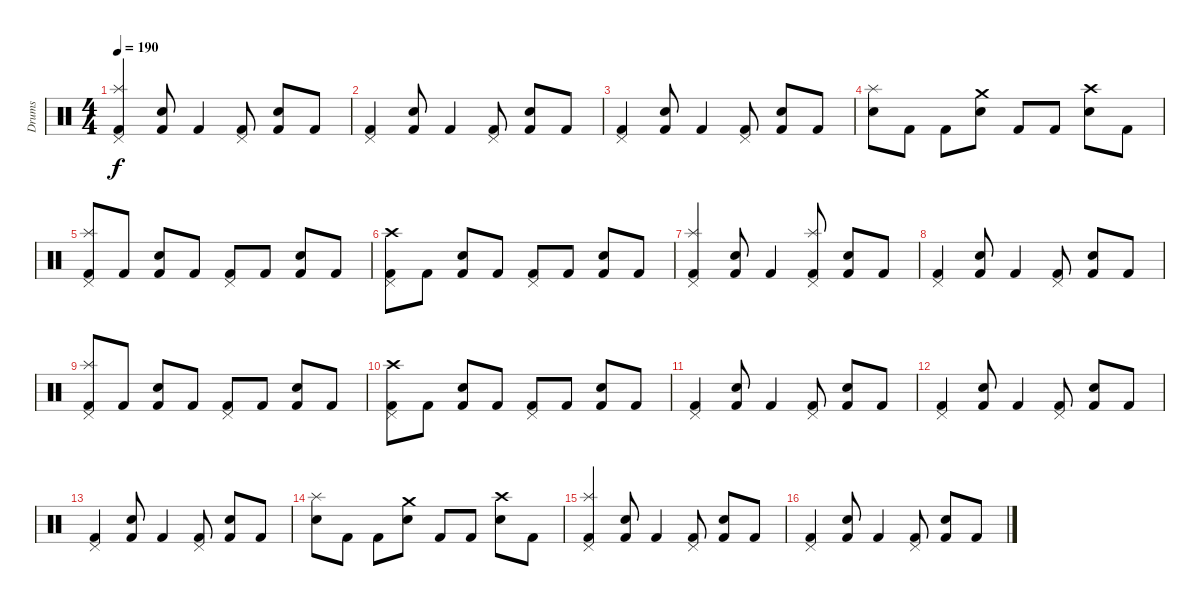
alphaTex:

\track ("Drums" "Drums") {instrument percussion}
\staff {score}
\articulation defaults
\ts (4 4)
\tempo 190
\clef neutral
\ks c
("Pedal Hi-Hat (hit)" "Splash (hit)" "Kick (hit) 2").4{dy f} ("Electric Snare (hit)" "Kick (hit) 2").8 "Kick (hit) 2".4 ("Pedal Hi-Hat (hit)" "Kick (hit) 2").8 ("Electric Snare (hit)" "Kick (hit) 2").8 "Kick (hit) 2".8 |
("Pedal Hi-Hat (hit)" "Kick (hit) 2").4 ("Electric Snare (hit)" "Kick (hit) 2").8 "Kick (hit) 2".4 ("Pedal Hi-Hat (hit)" "Kick (hit) 2").8 ("Electric Snare (hit)" "Kick (hit) 2").8 "Kick (hit) 2".8 |
("Pedal Hi-Hat (hit)" "Kick (hit) 2").4 ("Electric Snare (hit)" "Kick (hit) 2").8 "Kick (hit) 2".4 ("Pedal Hi-Hat (hit)" "Kick (hit) 2").8 ("Electric Snare (hit)" "Kick (hit) 2").8 "Kick (hit) 2".8 |
("Splash (hit)" "Electric Snare (hit)").8 "Kick (hit) 2".8 "Kick (hit) 2".8 ("Crash medium (hit)" "Electric Snare (hit)").8 "Kick (hit) 2".8 "Kick (hit) 2".8 ("Crash high (hit)" "Electric Snare (hit)").8 "Kick (hit) 2".8 |
("Splash (hit)" "Pedal Hi-Hat (hit)" "Kick (hit) 2").8 "Kick (hit) 2".8 ("Electric Snare (hit)" "Kick (hit) 2").8 "Kick (hit) 2".8 ("Pedal Hi-Hat (hit)" "Kick (hit) 2").8 "Kick (hit) 2".8 ("Electric Snare (hit)" "Kick (hit) 2").8 "Kick (hit) 2".8 |
("Crash high (hit)" "Pedal Hi-Hat (hit)" "Kick (hit) 2").8 "Kick (hit) 2".8 ("Electric Snare (hit)" "Kick (hit) 2").8 "Kick (hit) 2".8 ("Pedal Hi-Hat (hit)" "Kick (hit) 2").8 "Kick (hit) 2".8 ("Electric Snare (hit)" "Kick (hit) 2").8 "Kick (hit) 2".8 |
("Pedal Hi-Hat (hit)" "Splash (hit)" "Kick (hit) 2").4 ("Electric Snare (hit)" "Kick (hit) 2").8 "Kick (hit) 2".4 ("Pedal Hi-Hat (hit)" "Splash (hit)" "Kick (hit) 2").8 ("Electric Snare (hit)" "Kick (hit) 2").8 "Kick (hit) 2".8 |
("Pedal Hi-Hat (hit)" "Kick (hit) 2").4 ("Electric Snare (hit)" "Kick (hit) 2").8 "Kick (hit) 2".4 ("Pedal Hi-Hat (hit)" "Kick (hit) 2").8 ("Electric Snare (hit)" "Kick (hit) 2").8 "Kick (hit) 2".8 |
("Splash (hit)" "Pedal Hi-Hat (hit)" "Kick (hit) 2").8 "Kick (hit) 2".8 ("Electric Snare (hit)" "Kick (hit) 2").8 "Kick (hit) 2".8 ("Pedal Hi-Hat (hit)" "Kick (hit) 2").8 "Kick (hit) 2".8 ("Electric Snare (hit)" "Kick (hit) 2").8 "Kick (hit) 2".8 |
("Crash high (hit)" "Pedal Hi-Hat (hit)" "Kick (hit) 2").8 "Kick (hit) 2".8 ("Electric Snare (hit)" "Kick (hit) 2").8 "Kick (hit) 2".8 ("Pedal Hi-Hat (hit)" "Kick (hit) 2").8 "Kick (hit) 2".8 ("Electric Snare (hit)" "Kick (hit) 2").8 "Kick (hit) 2".8 |
("Pedal Hi-Hat (hit)" "Kick (hit) 2").4 ("Electric Snare (hit)" "Kick (hit) 2").8 "Kick (hit) 2".4 ("Pedal Hi-Hat (hit)" "Kick (hit) 2").8 ("Electric Snare (hit)" "Kick (hit) 2").8 "Kick (hit) 2".8 |
("Pedal Hi-Hat (hit)" "Kick (hit) 2").4 ("Electric Snare (hit)" "Kick (hit) 2").8 "Kick (hit) 2".4 ("Pedal Hi-Hat (hit)" "Kick (hit) 2").8 ("Electric Snare (hit)" "Kick (hit) 2").8 "Kick (hit) 2".8 |
("Pedal Hi-Hat (hit)" "Kick (hit) 2").4 ("Electric Snare (hit)" "Kick (hit) 2").8 "Kick (hit) 2".4 ("Pedal Hi-Hat (hit)" "Kick (hit) 2").8 ("Electric Snare (hit)" "Kick (hit) 2").8 "Kick (hit) 2".8 |
("Splash (hit)" "Electric Snare (hit)").8 "Kick (hit) 2".8 "Kick (hit) 2".8 ("Crash medium (hit)" "Electric Snare (hit)").8 "Kick (hit) 2".8 "Kick (hit) 2".8 ("Crash high (hit)" "Electric Snare (hit)").8 "Kick (hit) 2".8 |
("Pedal Hi-Hat (hit)" "Splash (hit)" "Kick (hit) 2").4 ("Electric Snare (hit)" "Kick (hit) 2").8 "Kick (hit) 2".4 ("Pedal Hi-Hat (hit)" "Kick (hit) 2").8 ("Electric Snare (hit)" "Kick (hit) 2").8 "Kick (hit) 2".8 |
("Pedal Hi-Hat (hit)" "Kick (hit) 2").4 ("Electric Snare (hit)" "Kick (hit) 2").8 "Kick (hit) 2".4 ("Pedal Hi-Hat (hit)" "Kick (hit) 2").8 ("Electric Snare (hit)" "Kick (hit) 2").8 "Kick (hit) 2".8
